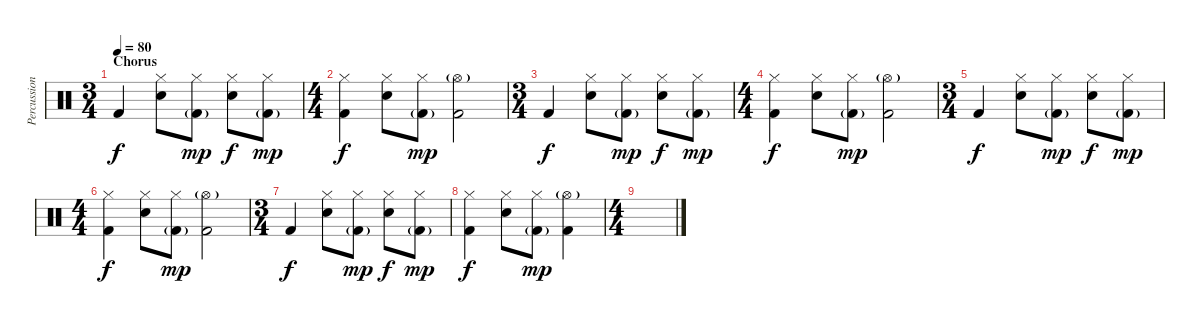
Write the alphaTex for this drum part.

\track ("Percussion" "Percussion") {instrument percussion}
\staff {score}
\articulation defaults
\ts (3 4)
\section ("" "Chorus")
\tempo 80
\clef neutral
\ks c "Kick (hit) 2".4{dy f}
("Hi-Hat (closed)" "Snare (hit) 2").8 ("Hi-Hat (closed)" "Kick (hit) 2"{g}).8{dy mp} ("Hi-Hat (closed)" "Snare (hit) 2").8{dy f} ("Hi-Hat (closed)" "Kick (hit) 2"{g}).8{dy mp} |
\ts (4 4)
("Hi-Hat (closed)" "Kick (hit) 2").4{dy f} ("Hi-Hat (closed)" "Snare (hit) 2").8 ("Hi-Hat (closed)" "Kick (hit) 2"{g}).8{dy mp} ("Hi-Hat (open)"{g} "Kick (hit) 2").2 |
\ts (3 4)
"Kick (hit) 2".4{dy f} ("Hi-Hat (closed)" "Snare (hit) 2").8 ("Hi-Hat (closed)" "Kick (hit) 2"{g}).8{dy mp} ("Hi-Hat (closed)" "Snare (hit) 2").8{dy f} ("Hi-Hat (closed)" "Kick (hit) 2"{g}).8{dy mp} |
\ts (4 4)
("Hi-Hat (closed)" "Kick (hit) 2").4{dy f} ("Hi-Hat (closed)" "Snare (hit) 2").8 ("Hi-Hat (closed)" "Kick (hit) 2"{g}).8{dy mp} ("Hi-Hat (open)"{g} "Kick (hit) 2").2 |
\ts (3 4)
"Kick (hit) 2".4{dy f} ("Hi-Hat (closed)" "Snare (hit) 2").8 ("Hi-Hat (closed)" "Kick (hit) 2"{g}).8{dy mp} ("Hi-Hat (closed)" "Snare (hit) 2").8{dy f} ("Hi-Hat (closed)" "Kick (hit) 2"{g}).8{dy mp} |
\ts (4 4)
("Hi-Hat (closed)" "Kick (hit) 2").4{dy f} ("Hi-Hat (closed)" "Snare (hit) 2").8 ("Hi-Hat (closed)" "Kick (hit) 2"{g}).8{dy mp} ("Hi-Hat (open)"{g} "Kick (hit) 2").2 |
\ts (3 4)
"Kick (hit) 2".4{dy f} ("Hi-Hat (closed)" "Snare (hit) 2").8 ("Hi-Hat (closed)" "Kick (hit) 2"{g}).8{dy mp} ("Hi-Hat (closed)" "Snare (hit) 2").8{dy f} ("Hi-Hat (closed)" "Kick (hit) 2"{g}).8{dy mp} |
("Hi-Hat (closed)" "Kick (hit) 2").4{dy f} ("Hi-Hat (closed)" "Snare (hit) 2").8 ("Hi-Hat (closed)" "Kick (hit) 2"{g}).8{dy mp} ("Hi-Hat (open)"{g} "Kick (hit) 2").4 |
\ts (4 4)
